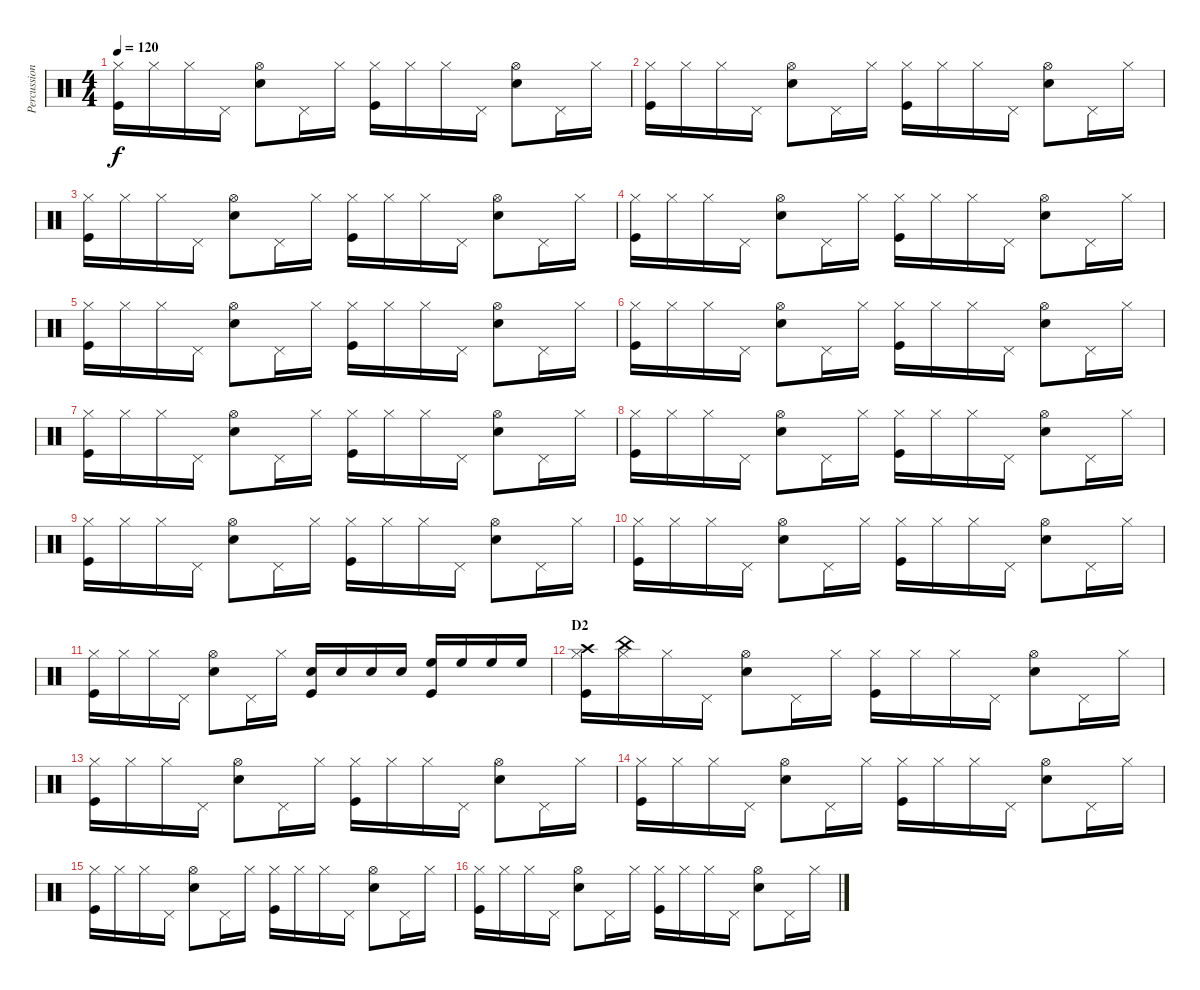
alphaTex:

\track ("Percussions" "Percussion") {instrument percussion}
\staff {score}
\articulation defaults
\ts (4 4)
\tempo 120
\clef neutral
\ks c
("Hi-Hat (closed)" "Kick (hit)").16{dy f} "Hi-Hat (closed)".16 "Hi-Hat (closed)".16 "Pedal Hi-Hat (hit)".16 ("Hi-Hat (open)" "Snare (hit) 2").8 "Pedal Hi-Hat (hit)".16 "Hi-Hat (closed)".16 ("Hi-Hat (closed)" "Kick (hit)").16 "Hi-Hat (closed)".16 "Hi-Hat (closed)".16 "Pedal Hi-Hat (hit)".16 ("Hi-Hat (open)" "Snare (hit) 2").8 "Pedal Hi-Hat (hit)".16 "Hi-Hat (closed)".16 |
("Hi-Hat (closed)" "Kick (hit)").16 "Hi-Hat (closed)".16 "Hi-Hat (closed)".16 "Pedal Hi-Hat (hit)".16 ("Hi-Hat (open)" "Snare (hit) 2").8 "Pedal Hi-Hat (hit)".16 "Hi-Hat (closed)".16 ("Hi-Hat (closed)" "Kick (hit)").16 "Hi-Hat (closed)".16 "Hi-Hat (closed)".16 "Pedal Hi-Hat (hit)".16 ("Hi-Hat (open)" "Snare (hit) 2").8 "Pedal Hi-Hat (hit)".16 "Hi-Hat (closed)".16 |
("Hi-Hat (closed)" "Kick (hit)").16 "Hi-Hat (closed)".16 "Hi-Hat (closed)".16 "Pedal Hi-Hat (hit)".16 ("Hi-Hat (open)" "Snare (hit) 2").8 "Pedal Hi-Hat (hit)".16 "Hi-Hat (closed)".16 ("Hi-Hat (closed)" "Kick (hit)").16 "Hi-Hat (closed)".16 "Hi-Hat (closed)".16 "Pedal Hi-Hat (hit)".16 ("Hi-Hat (open)" "Snare (hit) 2").8 "Pedal Hi-Hat (hit)".16 "Hi-Hat (closed)".16 |
("Hi-Hat (closed)" "Kick (hit)").16 "Hi-Hat (closed)".16 "Hi-Hat (closed)".16 "Pedal Hi-Hat (hit)".16 ("Hi-Hat (open)" "Snare (hit) 2").8 "Pedal Hi-Hat (hit)".16 "Hi-Hat (closed)".16 ("Hi-Hat (closed)" "Kick (hit)").16 "Hi-Hat (closed)".16 "Hi-Hat (closed)".16 "Pedal Hi-Hat (hit)".16 ("Hi-Hat (open)" "Snare (hit) 2").8 "Pedal Hi-Hat (hit)".16 "Hi-Hat (closed)".16 |
("Hi-Hat (closed)" "Kick (hit)").16 "Hi-Hat (closed)".16 "Hi-Hat (closed)".16 "Pedal Hi-Hat (hit)".16 ("Hi-Hat (open)" "Snare (hit) 2").8 "Pedal Hi-Hat (hit)".16 "Hi-Hat (closed)".16 ("Hi-Hat (closed)" "Kick (hit)").16 "Hi-Hat (closed)".16 "Hi-Hat (closed)".16 "Pedal Hi-Hat (hit)".16 ("Hi-Hat (open)" "Snare (hit) 2").8 "Pedal Hi-Hat (hit)".16 "Hi-Hat (closed)".16 |
("Hi-Hat (closed)" "Kick (hit)").16 "Hi-Hat (closed)".16 "Hi-Hat (closed)".16 "Pedal Hi-Hat (hit)".16 ("Hi-Hat (open)" "Snare (hit) 2").8 "Pedal Hi-Hat (hit)".16 "Hi-Hat (closed)".16 ("Hi-Hat (closed)" "Kick (hit)").16 "Hi-Hat (closed)".16 "Hi-Hat (closed)".16 "Pedal Hi-Hat (hit)".16 ("Hi-Hat (open)" "Snare (hit) 2").8 "Pedal Hi-Hat (hit)".16 "Hi-Hat (closed)".16 |
("Hi-Hat (closed)" "Kick (hit)").16 "Hi-Hat (closed)".16 "Hi-Hat (closed)".16 "Pedal Hi-Hat (hit)".16 ("Hi-Hat (open)" "Snare (hit) 2").8 "Pedal Hi-Hat (hit)".16 "Hi-Hat (closed)".16 ("Hi-Hat (closed)" "Kick (hit)").16 "Hi-Hat (closed)".16 "Hi-Hat (closed)".16 "Pedal Hi-Hat (hit)".16 ("Hi-Hat (open)" "Snare (hit) 2").8 "Pedal Hi-Hat (hit)".16 "Hi-Hat (closed)".16 |
("Hi-Hat (closed)" "Kick (hit)").16 "Hi-Hat (closed)".16 "Hi-Hat (closed)".16 "Pedal Hi-Hat (hit)".16 ("Hi-Hat (open)" "Snare (hit) 2").8 "Pedal Hi-Hat (hit)".16 "Hi-Hat (closed)".16 ("Hi-Hat (closed)" "Kick (hit)").16 "Hi-Hat (closed)".16 "Hi-Hat (closed)".16 "Pedal Hi-Hat (hit)".16 ("Hi-Hat (open)" "Snare (hit) 2").8 "Pedal Hi-Hat (hit)".16 "Hi-Hat (closed)".16 |
("Hi-Hat (closed)" "Kick (hit)").16 "Hi-Hat (closed)".16 "Hi-Hat (closed)".16 "Pedal Hi-Hat (hit)".16 ("Hi-Hat (open)" "Snare (hit) 2").8 "Pedal Hi-Hat (hit)".16 "Hi-Hat (closed)".16 ("Hi-Hat (closed)" "Kick (hit)").16 "Hi-Hat (closed)".16 "Hi-Hat (closed)".16 "Pedal Hi-Hat (hit)".16 ("Hi-Hat (open)" "Snare (hit) 2").8 "Pedal Hi-Hat (hit)".16 "Hi-Hat (closed)".16 |
("Hi-Hat (closed)" "Kick (hit)").16 "Hi-Hat (closed)".16 "Hi-Hat (closed)".16 "Pedal Hi-Hat (hit)".16 ("Hi-Hat (open)" "Snare (hit) 2").8 "Pedal Hi-Hat (hit)".16 "Hi-Hat (closed)".16 ("Hi-Hat (closed)" "Kick (hit)").16 "Hi-Hat (closed)".16 "Hi-Hat (closed)".16 "Pedal Hi-Hat (hit)".16 ("Hi-Hat (open)" "Snare (hit) 2").8 "Pedal Hi-Hat (hit)".16 "Hi-Hat (closed)".16 |
("Hi-Hat (closed)" "Kick (hit)").16 "Hi-Hat (closed)".16 "Hi-Hat (closed)".16 "Pedal Hi-Hat (hit)".16 ("Hi-Hat (open)" "Snare (hit) 2").8 "Pedal Hi-Hat (hit)".16 "Hi-Hat (closed)".16 ("Snare (hit) 2" "Kick (hit)").16 "Snare (hit) 2".16 "Snare (hit) 2".16 "Snare (hit) 2".16 ("High Floor Tom (hit)" "Kick (hit)").16 "High Floor Tom (hit)".16 "High Floor Tom (hit)".16 "High Floor Tom (hit)".16 |
\section ("" "D2")
("Hi-Hat (closed)" "Crash high (hit)" "Kick (hit)").16 ("Hi-Hat (closed)" "China (hit)").16 "Hi-Hat (closed)".16 "Pedal Hi-Hat (hit)".16 ("Hi-Hat (open)" "Snare (hit) 2").8 "Pedal Hi-Hat (hit)".16 "Hi-Hat (closed)".16 ("Hi-Hat (closed)" "Kick (hit)").16 "Hi-Hat (closed)".16 "Hi-Hat (closed)".16 "Pedal Hi-Hat (hit)".16 ("Hi-Hat (open)" "Snare (hit) 2").8 "Pedal Hi-Hat (hit)".16 "Hi-Hat (closed)".16 |
("Hi-Hat (closed)" "Kick (hit)").16 "Hi-Hat (closed)".16 "Hi-Hat (closed)".16 "Pedal Hi-Hat (hit)".16 ("Hi-Hat (open)" "Snare (hit) 2").8 "Pedal Hi-Hat (hit)".16 "Hi-Hat (closed)".16 ("Hi-Hat (closed)" "Kick (hit)").16 "Hi-Hat (closed)".16 "Hi-Hat (closed)".16 "Pedal Hi-Hat (hit)".16 ("Hi-Hat (open)" "Snare (hit) 2").8 "Pedal Hi-Hat (hit)".16 "Hi-Hat (closed)".16 |
("Hi-Hat (closed)" "Kick (hit)").16 "Hi-Hat (closed)".16 "Hi-Hat (closed)".16 "Pedal Hi-Hat (hit)".16 ("Hi-Hat (open)" "Snare (hit) 2").8 "Pedal Hi-Hat (hit)".16 "Hi-Hat (closed)".16 ("Hi-Hat (closed)" "Kick (hit)").16 "Hi-Hat (closed)".16 "Hi-Hat (closed)".16 "Pedal Hi-Hat (hit)".16 ("Hi-Hat (open)" "Snare (hit) 2").8 "Pedal Hi-Hat (hit)".16 "Hi-Hat (closed)".16 |
("Hi-Hat (closed)" "Kick (hit)").16 "Hi-Hat (closed)".16 "Hi-Hat (closed)".16 "Pedal Hi-Hat (hit)".16 ("Hi-Hat (open)" "Snare (hit) 2").8 "Pedal Hi-Hat (hit)".16 "Hi-Hat (closed)".16 ("Hi-Hat (closed)" "Kick (hit)").16 "Hi-Hat (closed)".16 "Hi-Hat (closed)".16 "Pedal Hi-Hat (hit)".16 ("Hi-Hat (open)" "Snare (hit) 2").8 "Pedal Hi-Hat (hit)".16 "Hi-Hat (closed)".16 |
("Hi-Hat (closed)" "Kick (hit)").16 "Hi-Hat (closed)".16 "Hi-Hat (closed)".16 "Pedal Hi-Hat (hit)".16 ("Hi-Hat (open)" "Snare (hit) 2").8 "Pedal Hi-Hat (hit)".16 "Hi-Hat (closed)".16 ("Hi-Hat (closed)" "Kick (hit)").16 "Hi-Hat (closed)".16 "Hi-Hat (closed)".16 "Pedal Hi-Hat (hit)".16 ("Hi-Hat (open)" "Snare (hit) 2").8 "Pedal Hi-Hat (hit)".16 "Hi-Hat (closed)".16
